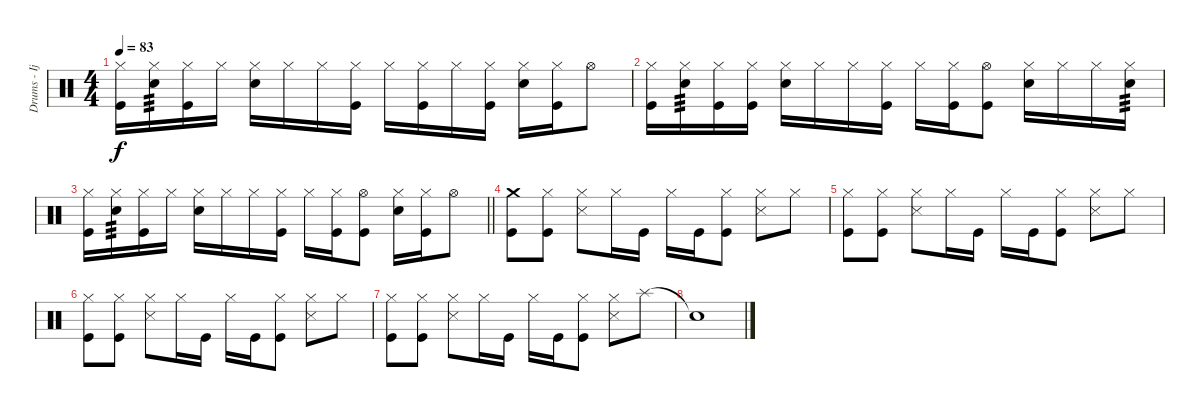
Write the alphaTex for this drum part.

\track ("Drums - Ijichi" "Drums - Ij") {instrument percussion}
\staff {score}
\articulation defaults
\ts (4 4)
\tempo 83
\clef neutral
\ks c
("Hi-Hat (closed)" "Kick (hit)").16{dy f} ("Hi-Hat (closed)" "Electric Snare (hit)").16{tp 3} ("Hi-Hat (closed)" "Kick (hit)").16 "Hi-Hat (closed)".16 ("Hi-Hat (closed)" "Electric Snare (hit)").16 "Hi-Hat (closed)".16 "Hi-Hat (closed)".16 ("Hi-Hat (closed)" "Kick (hit)").16 "Hi-Hat (closed)".16 ("Hi-Hat (closed)" "Kick (hit)").16 "Hi-Hat (closed)".16 ("Hi-Hat (closed)" "Kick (hit)").16 ("Hi-Hat (closed)" "Electric Snare (hit)").16 ("Hi-Hat (closed)" "Kick (hit)").16 "Hi-Hat (open)".8 |
("Hi-Hat (closed)" "Kick (hit)").16 ("Hi-Hat (closed)" "Electric Snare (hit)").16{tp 3} ("Hi-Hat (closed)" "Kick (hit)").16 ("Hi-Hat (closed)" "Kick (hit)").16 ("Hi-Hat (closed)" "Electric Snare (hit)").16 "Hi-Hat (closed)".16 "Hi-Hat (closed)".16 ("Hi-Hat (closed)" "Kick (hit)").16 "Hi-Hat (closed)".16 ("Hi-Hat (closed)" "Kick (hit)").16 ("Hi-Hat (open)" "Kick (hit)").8 ("Hi-Hat (closed)" "Electric Snare (hit)").16 "Hi-Hat (closed)".16 "Hi-Hat (closed)".16 ("Hi-Hat (closed)" "Electric Snare (hit)").16{tp 3} |
\barLineRight lightlight
("Hi-Hat (closed)" "Kick (hit)").16 ("Hi-Hat (closed)" "Electric Snare (hit)").16{tp 3} ("Hi-Hat (closed)" "Kick (hit)").16 "Hi-Hat (closed)".16 ("Hi-Hat (closed)" "Electric Snare (hit)").16 "Hi-Hat (closed)".16 "Hi-Hat (closed)".16 ("Hi-Hat (closed)" "Kick (hit)").16 "Hi-Hat (closed)".16 ("Hi-Hat (closed)" "Kick (hit)").16 ("Hi-Hat (open)" "Kick (hit)").8 ("Hi-Hat (closed)" "Electric Snare (hit)").16 ("Hi-Hat (closed)" "Kick (hit)").16 "Hi-Hat (open)".8 |
("Crash medium (hit)" "Kick (hit)").8 ("Hi-Hat (closed)" "Kick (hit)").8 ("Hi-Hat (closed)" "Snare (side stick) 3").8 "Hi-Hat (closed)".16 "Kick (hit)".16 "Hi-Hat (closed)".16 "Kick (hit)".16 ("Hi-Hat (closed)" "Kick (hit)").8 ("Hi-Hat (closed)" "Snare (side stick) 3").8 "Hi-Hat (closed)".8 |
("Hi-Hat (closed)" "Kick (hit)").8 ("Hi-Hat (closed)" "Kick (hit)").8 ("Hi-Hat (closed)" "Snare (side stick) 3").8 "Hi-Hat (closed)".16 "Kick (hit)".16 "Hi-Hat (closed)".16 "Kick (hit)".16 ("Hi-Hat (closed)" "Kick (hit)").8 ("Hi-Hat (closed)" "Snare (side stick) 3").8 "Hi-Hat (closed)".8 |
("Hi-Hat (closed)" "Kick (hit)").8 ("Hi-Hat (closed)" "Kick (hit)").8 ("Hi-Hat (closed)" "Snare (side stick) 3").8 "Hi-Hat (closed)".16 "Kick (hit)".16 "Hi-Hat (closed)".16 "Kick (hit)".16 ("Hi-Hat (closed)" "Kick (hit)").8 ("Hi-Hat (closed)" "Snare (side stick) 3").8 "Hi-Hat (closed)".8 |
("Hi-Hat (closed)" "Kick (hit)").8 ("Hi-Hat (closed)" "Kick (hit)").8 ("Hi-Hat (closed)" "Snare (side stick) 3").8 "Hi-Hat (closed)".16 "Kick (hit)".16 "Hi-Hat (closed)".16 "Kick (hit)".16 ("Hi-Hat (closed)" "Kick (hit)").8 ("Hi-Hat (closed)" "Snare (side stick) 3").8 "Splash (hit)".8 |
"Snare (hit)"{t}.1
